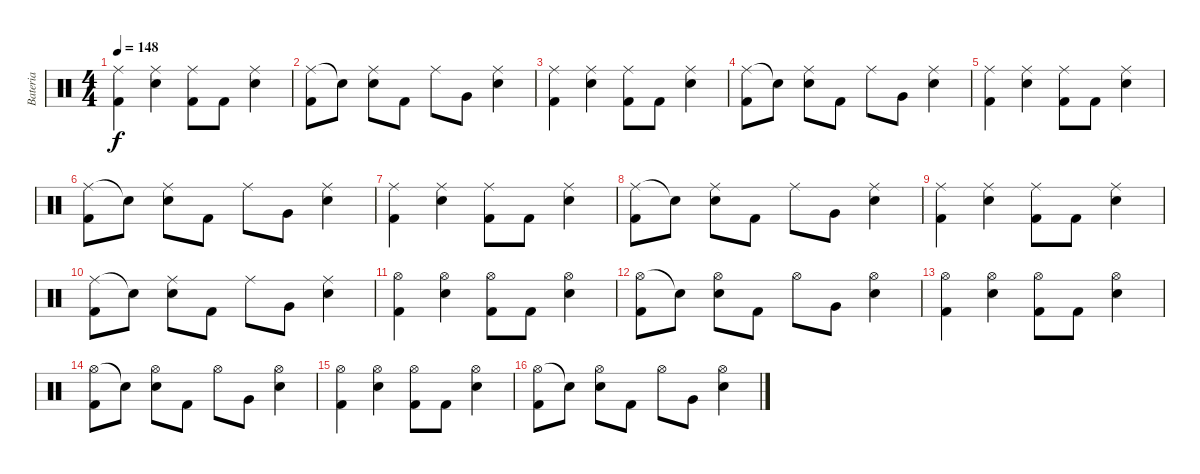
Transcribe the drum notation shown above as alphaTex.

\track ("Bateria" "Bateria") {instrument percussion}
\staff {score}
\articulation defaults
\ts (4 4)
\tempo 148
\clef neutral
\ks c
("Ride (middle)" "Kick (hit) 2").4{dy f} ("Ride (middle)" "Electric Snare (hit)").4 ("Ride (middle)" "Kick (hit) 2").8 "Kick (hit) 2".8 ("Ride (middle)" "Electric Snare (hit)").4 |
("Ride (middle)" "Kick (hit) 2").8 "Snare (hit)"{t}.8 ("Ride (middle)" "Electric Snare (hit)").8 "Kick (hit) 2".8 "Ride (middle)".8 "Very Low Tom (hit)".8 ("Ride (middle)" "Electric Snare (hit)").4 |
("Ride (middle)" "Kick (hit) 2").4 ("Ride (middle)" "Electric Snare (hit)").4 ("Ride (middle)" "Kick (hit) 2").8 "Kick (hit) 2".8 ("Ride (middle)" "Electric Snare (hit)").4 |
("Ride (middle)" "Kick (hit) 2").8 "Snare (hit)"{t}.8 ("Ride (middle)" "Electric Snare (hit)").8 "Kick (hit) 2".8 "Ride (middle)".8 "Very Low Tom (hit)".8 ("Ride (middle)" "Electric Snare (hit)").4 |
("Ride (middle)" "Kick (hit) 2").4 ("Ride (middle)" "Electric Snare (hit)").4 ("Ride (middle)" "Kick (hit) 2").8 "Kick (hit) 2".8 ("Ride (middle)" "Electric Snare (hit)").4 |
("Ride (middle)" "Kick (hit) 2").8 "Snare (hit)"{t}.8 ("Ride (middle)" "Electric Snare (hit)").8 "Kick (hit) 2".8 "Ride (middle)".8 "Very Low Tom (hit)".8 ("Ride (middle)" "Electric Snare (hit)").4 |
("Ride (middle)" "Kick (hit) 2").4 ("Ride (middle)" "Electric Snare (hit)").4 ("Ride (middle)" "Kick (hit) 2").8 "Kick (hit) 2".8 ("Ride (middle)" "Electric Snare (hit)").4 |
("Ride (middle)" "Kick (hit) 2").8 "Snare (hit)"{t}.8 ("Ride (middle)" "Electric Snare (hit)").8 "Kick (hit) 2".8 "Ride (middle)".8 "Very Low Tom (hit)".8 ("Ride (middle)" "Electric Snare (hit)").4 |
("Ride (middle)" "Kick (hit) 2").4 ("Ride (middle)" "Electric Snare (hit)").4 ("Ride (middle)" "Kick (hit) 2").8 "Kick (hit) 2".8 ("Ride (middle)" "Electric Snare (hit)").4 |
("Ride (middle)" "Kick (hit) 2").8 "Snare (hit)"{t}.8 ("Ride (middle)" "Electric Snare (hit)").8 "Kick (hit) 2".8 "Ride (middle)".8 "Very Low Tom (hit)".8 ("Ride (middle)" "Electric Snare (hit)").4 |
("Hi-Hat (open)" "Kick (hit) 2").4 ("Hi-Hat (open)" "Electric Snare (hit)").4 ("Hi-Hat (open)" "Kick (hit) 2").8 "Kick (hit) 2".8 ("Hi-Hat (open)" "Electric Snare (hit)").4 |
("Hi-Hat (open)" "Kick (hit) 2").8 "Snare (hit)"{t}.8 ("Hi-Hat (open)" "Electric Snare (hit)").8 "Kick (hit) 2".8 "Hi-Hat (open)".8 "Very Low Tom (hit)".8 ("Hi-Hat (open)" "Electric Snare (hit)").4 |
("Hi-Hat (open)" "Kick (hit) 2").4 ("Hi-Hat (open)" "Electric Snare (hit)").4 ("Hi-Hat (open)" "Kick (hit) 2").8 "Kick (hit) 2".8 ("Hi-Hat (open)" "Electric Snare (hit)").4 |
("Hi-Hat (open)" "Kick (hit) 2").8 "Snare (hit)"{t}.8 ("Hi-Hat (open)" "Electric Snare (hit)").8 "Kick (hit) 2".8 "Hi-Hat (open)".8 "Very Low Tom (hit)".8 ("Hi-Hat (open)" "Electric Snare (hit)").4 |
("Hi-Hat (open)" "Kick (hit) 2").4 ("Hi-Hat (open)" "Electric Snare (hit)").4 ("Hi-Hat (open)" "Kick (hit) 2").8 "Kick (hit) 2".8 ("Hi-Hat (open)" "Electric Snare (hit)").4 |
("Hi-Hat (open)" "Kick (hit) 2").8 "Snare (hit)"{t}.8 ("Hi-Hat (open)" "Electric Snare (hit)").8 "Kick (hit) 2".8 "Hi-Hat (open)".8 "Very Low Tom (hit)".8 ("Hi-Hat (open)" "Electric Snare (hit)").4
